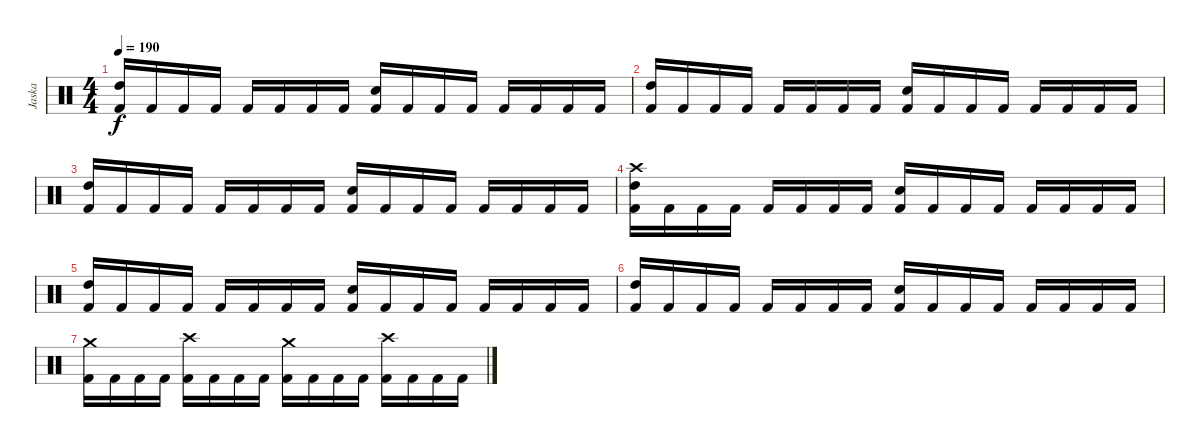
\track ("Jaska" "Jaska") {instrument percussion}
\staff {score}
\articulation defaults
\ts (4 4)
\tempo 190
\clef neutral
\ks c
("Kick (hit) 2" "High Tom (hit)").16{dy f} "Kick (hit) 2".16 "Kick (hit) 2".16 "Kick (hit) 2".16 "Kick (hit) 2".16 "Kick (hit) 2".16 "Kick (hit) 2".16 "Kick (hit) 2".16 ("Kick (hit) 2" "Snare (hit) 2").16 "Kick (hit) 2".16 "Kick (hit) 2".16 "Kick (hit) 2".16 "Kick (hit) 2".16 "Kick (hit) 2".16 "Kick (hit) 2".16 "Kick (hit) 2".16 |
("Kick (hit) 2" "High Tom (hit)").16 "Kick (hit) 2".16 "Kick (hit) 2".16 "Kick (hit) 2".16 "Kick (hit) 2".16 "Kick (hit) 2".16 "Kick (hit) 2".16 "Kick (hit) 2".16 ("Kick (hit) 2" "Snare (hit) 2").16 "Kick (hit) 2".16 "Kick (hit) 2".16 "Kick (hit) 2".16 "Kick (hit) 2".16 "Kick (hit) 2".16 "Kick (hit) 2".16 "Kick (hit) 2".16 |
("Kick (hit) 2" "High Tom (hit)").16 "Kick (hit) 2".16 "Kick (hit) 2".16 "Kick (hit) 2".16 "Kick (hit) 2".16 "Kick (hit) 2".16 "Kick (hit) 2".16 "Kick (hit) 2".16 ("Kick (hit) 2" "Snare (hit) 2").16 "Kick (hit) 2".16 "Kick (hit) 2".16 "Kick (hit) 2".16 "Kick (hit) 2".16 "Kick (hit) 2".16 "Kick (hit) 2".16 "Kick (hit) 2".16 |
("Kick (hit) 2" "High Tom (hit)" "Crash high (hit)").16 "Kick (hit) 2".16 "Kick (hit) 2".16 "Kick (hit) 2".16 "Kick (hit) 2".16 "Kick (hit) 2".16 "Kick (hit) 2".16 "Kick (hit) 2".16 ("Kick (hit) 2" "Snare (hit) 2").16 "Kick (hit) 2".16 "Kick (hit) 2".16 "Kick (hit) 2".16 "Kick (hit) 2".16 "Kick (hit) 2".16 "Kick (hit) 2".16 "Kick (hit) 2".16 |
("Kick (hit) 2" "High Tom (hit)").16 "Kick (hit) 2".16 "Kick (hit) 2".16 "Kick (hit) 2".16 "Kick (hit) 2".16 "Kick (hit) 2".16 "Kick (hit) 2".16 "Kick (hit) 2".16 ("Kick (hit) 2" "Snare (hit) 2").16 "Kick (hit) 2".16 "Kick (hit) 2".16 "Kick (hit) 2".16 "Kick (hit) 2".16 "Kick (hit) 2".16 "Kick (hit) 2".16 "Kick (hit) 2".16 |
("Kick (hit) 2" "High Tom (hit)").16 "Kick (hit) 2".16 "Kick (hit) 2".16 "Kick (hit) 2".16 "Kick (hit) 2".16 "Kick (hit) 2".16 "Kick (hit) 2".16 "Kick (hit) 2".16 ("Kick (hit) 2" "Snare (hit) 2").16 "Kick (hit) 2".16 "Kick (hit) 2".16 "Kick (hit) 2".16 "Kick (hit) 2".16 "Kick (hit) 2".16 "Kick (hit) 2".16 "Kick (hit) 2".16 |
("Kick (hit) 2" "Crash medium (hit)").16 "Kick (hit) 2".16 "Kick (hit) 2".16 "Kick (hit) 2".16 ("Kick (hit) 2" "Crash high (hit)").16 "Kick (hit) 2".16 "Kick (hit) 2".16 "Kick (hit) 2".16 ("Kick (hit) 2" "Crash medium (hit)").16 "Kick (hit) 2".16 "Kick (hit) 2".16 "Kick (hit) 2".16 ("Kick (hit) 2" "Crash high (hit)").16 "Kick (hit) 2".16 "Kick (hit) 2".16 "Kick (hit) 2".16
